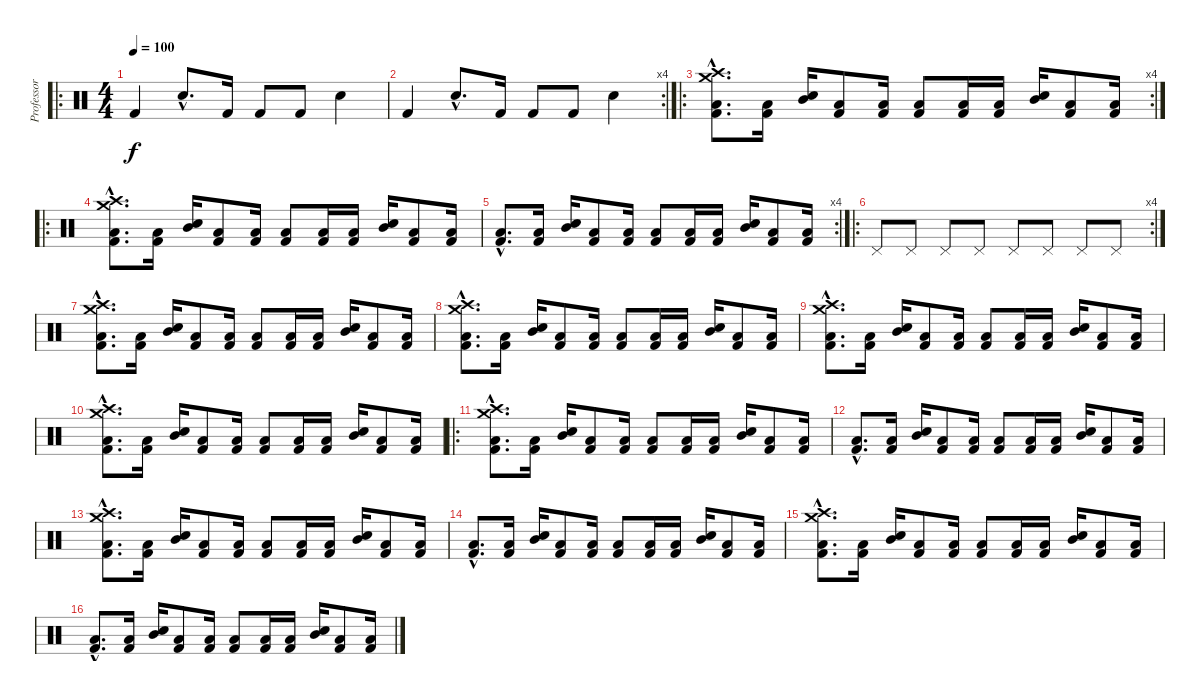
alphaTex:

\track ("Professor" "Professor") {instrument percussion}
\staff {score}
\articulation defaults
\ro
\ts (4 4)
\tempo 100
\clef neutral
\ks c "Kick (hit) 2".4{dy f} "Electric Snare (hit)"{hac}.8{d} "Kick (hit) 2".16 "Kick (hit) 2".8 "Kick (hit) 2".8 "Electric Snare (hit)".4
|
\rc 4 "Kick (hit) 2".4 "Electric Snare (hit)"{hac}.8{d} "Kick (hit) 2".16 "Kick (hit) 2".8 "Kick (hit) 2".8 "Electric Snare (hit)".4
|
\ro
\rc 4
("Kick (hit) 2"{hac} "Low Tom (hit)"{hac} "Crash medium (hit)"{hac} "Crash high (hit)"{hac}).8{d} ("Kick (hit) 2" "Low Tom (hit)").16 ("Electric Snare (hit)" "Mid Tom (hit)").16 ("Kick (hit) 2" "Low Tom (hit)").8 ("Kick (hit) 2" "Low Tom (hit)").16 ("Kick (hit) 2" "Low Tom (hit)").8 ("Kick (hit) 2" "Low Tom (hit)").16 ("Kick (hit) 2" "Low Tom (hit)").16 ("Electric Snare (hit)" "Mid Tom (hit)").16 ("Kick (hit) 2" "Low Tom (hit)").8 ("Kick (hit) 2" "Low Tom (hit)").16 |
\ro
("Kick (hit) 2"{hac} "Low Tom (hit)"{hac} "Crash high (hit)"{hac} "Crash medium (hit)"{hac}).8{d} ("Kick (hit) 2" "Low Tom (hit)").16 ("Electric Snare (hit)" "Mid Tom (hit)").16 ("Kick (hit) 2" "Low Tom (hit)").8 ("Kick (hit) 2" "Low Tom (hit)").16 ("Kick (hit) 2" "Low Tom (hit)").8 ("Kick (hit) 2" "Low Tom (hit)").16 ("Kick (hit) 2" "Low Tom (hit)").16 ("Electric Snare (hit)" "Mid Tom (hit)").16 ("Kick (hit) 2" "Low Tom (hit)").8 ("Kick (hit) 2" "Low Tom (hit)").16 |
\rc 4
("Kick (hit) 2"{hac} "Low Tom (hit)"{hac}).8{d} ("Kick (hit) 2" "Low Tom (hit)").16 ("Electric Snare (hit)" "Mid Tom (hit)").16 ("Kick (hit) 2" "Low Tom (hit)").8 ("Kick (hit) 2" "Low Tom (hit)").16 ("Kick (hit) 2" "Low Tom (hit)").8 ("Kick (hit) 2" "Low Tom (hit)").16 ("Kick (hit) 2" "Low Tom (hit)").16 ("Electric Snare (hit)" "Mid Tom (hit)").16 ("Kick (hit) 2" "Low Tom (hit)").8 ("Kick (hit) 2" "Low Tom (hit)").16 |
\ro
\rc 4 "Pedal Hi-Hat (hit)".8 "Pedal Hi-Hat (hit)".8 "Pedal Hi-Hat (hit)".8 "Pedal Hi-Hat (hit)".8 "Pedal Hi-Hat (hit)".8 "Pedal Hi-Hat (hit)".8 "Pedal Hi-Hat (hit)".8 "Pedal Hi-Hat (hit)".8
|
("Kick (hit) 2"{hac} "Low Tom (hit)"{hac} "Crash medium (hit)"{hac} "Crash high (hit)"{hac}).8{d} ("Kick (hit) 2" "Low Tom (hit)").16 ("Electric Snare (hit)" "Mid Tom (hit)").16 ("Kick (hit) 2" "Low Tom (hit)").8 ("Kick (hit) 2" "Low Tom (hit)").16 ("Kick (hit) 2" "Low Tom (hit)").8 ("Kick (hit) 2" "Low Tom (hit)").16 ("Kick (hit) 2" "Low Tom (hit)").16 ("Electric Snare (hit)" "Mid Tom (hit)").16 ("Kick (hit) 2" "Low Tom (hit)").8 ("Kick (hit) 2" "Low Tom (hit)").16 |
("Kick (hit) 2"{hac} "Low Tom (hit)"{hac} "Crash medium (hit)"{hac} "Crash high (hit)"{hac}).8{d} ("Kick (hit) 2" "Low Tom (hit)").16 ("Electric Snare (hit)" "Mid Tom (hit)").16 ("Kick (hit) 2" "Low Tom (hit)").8 ("Kick (hit) 2" "Low Tom (hit)").16 ("Kick (hit) 2" "Low Tom (hit)").8 ("Kick (hit) 2" "Low Tom (hit)").16 ("Kick (hit) 2" "Low Tom (hit)").16 ("Electric Snare (hit)" "Mid Tom (hit)").16 ("Kick (hit) 2" "Low Tom (hit)").8 ("Kick (hit) 2" "Low Tom (hit)").16 |
("Kick (hit) 2"{hac} "Low Tom (hit)"{hac} "Crash medium (hit)"{hac} "Crash high (hit)"{hac}).8{d} ("Kick (hit) 2" "Low Tom (hit)").16 ("Electric Snare (hit)" "Mid Tom (hit)").16 ("Kick (hit) 2" "Low Tom (hit)").8 ("Kick (hit) 2" "Low Tom (hit)").16 ("Kick (hit) 2" "Low Tom (hit)").8 ("Kick (hit) 2" "Low Tom (hit)").16 ("Kick (hit) 2" "Low Tom (hit)").16 ("Electric Snare (hit)" "Mid Tom (hit)").16 ("Kick (hit) 2" "Low Tom (hit)").8 ("Kick (hit) 2" "Low Tom (hit)").16 |
("Kick (hit) 2"{hac} "Low Tom (hit)"{hac} "Crash medium (hit)"{hac} "Crash high (hit)"{hac}).8{d} ("Kick (hit) 2" "Low Tom (hit)").16 ("Electric Snare (hit)" "Mid Tom (hit)").16 ("Kick (hit) 2" "Low Tom (hit)").8 ("Kick (hit) 2" "Low Tom (hit)").16 ("Kick (hit) 2" "Low Tom (hit)").8 ("Kick (hit) 2" "Low Tom (hit)").16 ("Kick (hit) 2" "Low Tom (hit)").16 ("Electric Snare (hit)" "Mid Tom (hit)").16 ("Kick (hit) 2" "Low Tom (hit)").8 ("Kick (hit) 2" "Low Tom (hit)").16 |
\ro
("Kick (hit) 2"{hac} "Low Tom (hit)"{hac} "Crash high (hit)"{hac} "Crash medium (hit)"{hac}).8{d} ("Kick (hit) 2" "Low Tom (hit)").16 ("Electric Snare (hit)" "Mid Tom (hit)").16 ("Kick (hit) 2" "Low Tom (hit)").8 ("Kick (hit) 2" "Low Tom (hit)").16 ("Kick (hit) 2" "Low Tom (hit)").8 ("Kick (hit) 2" "Low Tom (hit)").16 ("Kick (hit) 2" "Low Tom (hit)").16 ("Electric Snare (hit)" "Mid Tom (hit)").16 ("Kick (hit) 2" "Low Tom (hit)").8 ("Kick (hit) 2" "Low Tom (hit)").16 |
("Kick (hit) 2"{hac} "Low Tom (hit)"{hac}).8{d} ("Kick (hit) 2" "Low Tom (hit)").16 ("Electric Snare (hit)" "Mid Tom (hit)").16 ("Kick (hit) 2" "Low Tom (hit)").8 ("Kick (hit) 2" "Low Tom (hit)").16 ("Kick (hit) 2" "Low Tom (hit)").8 ("Kick (hit) 2" "Low Tom (hit)").16 ("Kick (hit) 2" "Low Tom (hit)").16 ("Electric Snare (hit)" "Mid Tom (hit)").16 ("Kick (hit) 2" "Low Tom (hit)").8 ("Kick (hit) 2" "Low Tom (hit)").16 |
("Kick (hit) 2"{hac} "Low Tom (hit)"{hac} "Crash high (hit)"{hac} "Crash medium (hit)"{hac}).8{d} ("Kick (hit) 2" "Low Tom (hit)").16 ("Electric Snare (hit)" "Mid Tom (hit)").16 ("Kick (hit) 2" "Low Tom (hit)").8 ("Kick (hit) 2" "Low Tom (hit)").16 ("Kick (hit) 2" "Low Tom (hit)").8 ("Kick (hit) 2" "Low Tom (hit)").16 ("Kick (hit) 2" "Low Tom (hit)").16 ("Electric Snare (hit)" "Mid Tom (hit)").16 ("Kick (hit) 2" "Low Tom (hit)").8 ("Kick (hit) 2" "Low Tom (hit)").16 |
("Kick (hit) 2"{hac} "Low Tom (hit)"{hac}).8{d} ("Kick (hit) 2" "Low Tom (hit)").16 ("Electric Snare (hit)" "Mid Tom (hit)").16 ("Kick (hit) 2" "Low Tom (hit)").8 ("Kick (hit) 2" "Low Tom (hit)").16 ("Kick (hit) 2" "Low Tom (hit)").8 ("Kick (hit) 2" "Low Tom (hit)").16 ("Kick (hit) 2" "Low Tom (hit)").16 ("Electric Snare (hit)" "Mid Tom (hit)").16 ("Kick (hit) 2" "Low Tom (hit)").8 ("Kick (hit) 2" "Low Tom (hit)").16 |
("Kick (hit) 2"{hac} "Low Tom (hit)"{hac} "Crash high (hit)"{hac} "Crash medium (hit)"{hac}).8{d} ("Kick (hit) 2" "Low Tom (hit)").16 ("Electric Snare (hit)" "Mid Tom (hit)").16 ("Kick (hit) 2" "Low Tom (hit)").8 ("Kick (hit) 2" "Low Tom (hit)").16 ("Kick (hit) 2" "Low Tom (hit)").8 ("Kick (hit) 2" "Low Tom (hit)").16 ("Kick (hit) 2" "Low Tom (hit)").16 ("Electric Snare (hit)" "Mid Tom (hit)").16 ("Kick (hit) 2" "Low Tom (hit)").8 ("Kick (hit) 2" "Low Tom (hit)").16 |
("Kick (hit) 2"{hac} "Low Tom (hit)"{hac}).8{d} ("Kick (hit) 2" "Low Tom (hit)").16 ("Electric Snare (hit)" "Mid Tom (hit)").16 ("Kick (hit) 2" "Low Tom (hit)").8 ("Kick (hit) 2" "Low Tom (hit)").16 ("Kick (hit) 2" "Low Tom (hit)").8 ("Kick (hit) 2" "Low Tom (hit)").16 ("Kick (hit) 2" "Low Tom (hit)").16 ("Electric Snare (hit)" "Mid Tom (hit)").16 ("Kick (hit) 2" "Low Tom (hit)").8 ("Kick (hit) 2" "Low Tom (hit)").16
